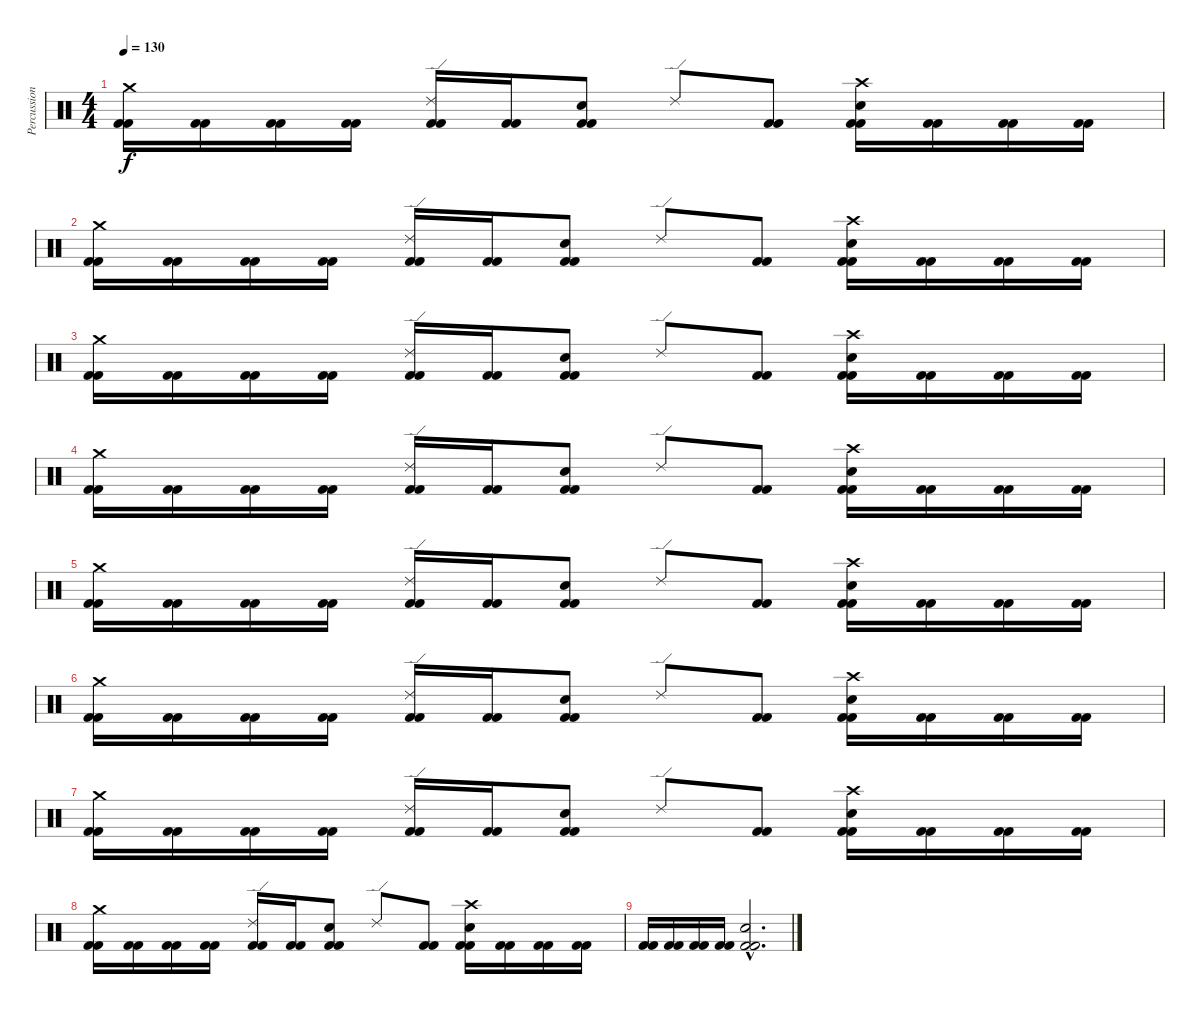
\track ("Percussion" "Percussion") {instrument percussion}
\staff {score}
\articulation defaults
\ts (4 4)
\tempo 130
\clef neutral
\ks c
("Kick (hit) 2" "Kick (hit) 2" "Crash medium (hit)").16{dy f} ("Kick (hit) 2" "Kick (hit) 2").16 ("Kick (hit) 2" "Kick (hit) 2").16 ("Kick (hit) 2" "Kick (hit) 2").16 ("Kick (hit) 2" "Kick (hit) 2" "Ride (edge) 2").16 ("Kick (hit) 2" "Kick (hit) 2").16 ("Kick (hit) 2" "Kick (hit) 2" "Electric Snare (hit)").8 "Ride (edge) 2".8 ("Kick (hit) 2" "Kick (hit) 2").8 ("Kick (hit) 2" "Kick (hit) 2" "Electric Snare (hit)" "Crash high (hit)").16 ("Kick (hit) 2" "Kick (hit) 2").16 ("Kick (hit) 2" "Kick (hit) 2").16 ("Kick (hit) 2" "Kick (hit) 2").16 |
("Kick (hit) 2" "Kick (hit) 2" "Crash medium (hit)").16 ("Kick (hit) 2" "Kick (hit) 2").16 ("Kick (hit) 2" "Kick (hit) 2").16 ("Kick (hit) 2" "Kick (hit) 2").16 ("Kick (hit) 2" "Kick (hit) 2" "Ride (edge) 2").16 ("Kick (hit) 2" "Kick (hit) 2").16 ("Kick (hit) 2" "Kick (hit) 2" "Electric Snare (hit)").8 "Ride (edge) 2".8 ("Kick (hit) 2" "Kick (hit) 2").8 ("Kick (hit) 2" "Kick (hit) 2" "Electric Snare (hit)" "Crash high (hit)").16 ("Kick (hit) 2" "Kick (hit) 2").16 ("Kick (hit) 2" "Kick (hit) 2").16 ("Kick (hit) 2" "Kick (hit) 2").16 |
("Kick (hit) 2" "Kick (hit) 2" "Crash medium (hit)").16 ("Kick (hit) 2" "Kick (hit) 2").16 ("Kick (hit) 2" "Kick (hit) 2").16 ("Kick (hit) 2" "Kick (hit) 2").16 ("Kick (hit) 2" "Kick (hit) 2" "Ride (edge) 2").16 ("Kick (hit) 2" "Kick (hit) 2").16 ("Kick (hit) 2" "Kick (hit) 2" "Electric Snare (hit)").8 "Ride (edge) 2".8 ("Kick (hit) 2" "Kick (hit) 2").8 ("Kick (hit) 2" "Kick (hit) 2" "Electric Snare (hit)" "Crash high (hit)").16 ("Kick (hit) 2" "Kick (hit) 2").16 ("Kick (hit) 2" "Kick (hit) 2").16 ("Kick (hit) 2" "Kick (hit) 2").16 |
("Kick (hit) 2" "Kick (hit) 2" "Crash medium (hit)").16 ("Kick (hit) 2" "Kick (hit) 2").16 ("Kick (hit) 2" "Kick (hit) 2").16 ("Kick (hit) 2" "Kick (hit) 2").16 ("Kick (hit) 2" "Kick (hit) 2" "Ride (edge) 2").16 ("Kick (hit) 2" "Kick (hit) 2").16 ("Kick (hit) 2" "Kick (hit) 2" "Electric Snare (hit)").8 "Ride (edge) 2".8 ("Kick (hit) 2" "Kick (hit) 2").8 ("Kick (hit) 2" "Kick (hit) 2" "Electric Snare (hit)" "Crash high (hit)").16 ("Kick (hit) 2" "Kick (hit) 2").16 ("Kick (hit) 2" "Kick (hit) 2").16 ("Kick (hit) 2" "Kick (hit) 2").16 |
("Kick (hit) 2" "Kick (hit) 2" "Crash medium (hit)").16 ("Kick (hit) 2" "Kick (hit) 2").16 ("Kick (hit) 2" "Kick (hit) 2").16 ("Kick (hit) 2" "Kick (hit) 2").16 ("Kick (hit) 2" "Kick (hit) 2" "Ride (edge) 2").16 ("Kick (hit) 2" "Kick (hit) 2").16 ("Kick (hit) 2" "Kick (hit) 2" "Electric Snare (hit)").8 "Ride (edge) 2".8 ("Kick (hit) 2" "Kick (hit) 2").8 ("Kick (hit) 2" "Kick (hit) 2" "Electric Snare (hit)" "Crash high (hit)").16 ("Kick (hit) 2" "Kick (hit) 2").16 ("Kick (hit) 2" "Kick (hit) 2").16 ("Kick (hit) 2" "Kick (hit) 2").16 |
("Kick (hit) 2" "Kick (hit) 2" "Crash medium (hit)").16 ("Kick (hit) 2" "Kick (hit) 2").16 ("Kick (hit) 2" "Kick (hit) 2").16 ("Kick (hit) 2" "Kick (hit) 2").16 ("Kick (hit) 2" "Kick (hit) 2" "Ride (edge) 2").16 ("Kick (hit) 2" "Kick (hit) 2").16 ("Kick (hit) 2" "Kick (hit) 2" "Electric Snare (hit)").8 "Ride (edge) 2".8 ("Kick (hit) 2" "Kick (hit) 2").8 ("Kick (hit) 2" "Kick (hit) 2" "Electric Snare (hit)" "Crash high (hit)").16 ("Kick (hit) 2" "Kick (hit) 2").16 ("Kick (hit) 2" "Kick (hit) 2").16 ("Kick (hit) 2" "Kick (hit) 2").16 |
("Kick (hit) 2" "Kick (hit) 2" "Crash medium (hit)").16 ("Kick (hit) 2" "Kick (hit) 2").16 ("Kick (hit) 2" "Kick (hit) 2").16 ("Kick (hit) 2" "Kick (hit) 2").16 ("Kick (hit) 2" "Kick (hit) 2" "Ride (edge) 2").16 ("Kick (hit) 2" "Kick (hit) 2").16 ("Kick (hit) 2" "Kick (hit) 2" "Electric Snare (hit)").8 "Ride (edge) 2".8 ("Kick (hit) 2" "Kick (hit) 2").8 ("Kick (hit) 2" "Kick (hit) 2" "Electric Snare (hit)" "Crash high (hit)").16 ("Kick (hit) 2" "Kick (hit) 2").16 ("Kick (hit) 2" "Kick (hit) 2").16 ("Kick (hit) 2" "Kick (hit) 2").16 |
("Kick (hit) 2" "Kick (hit) 2" "Crash medium (hit)").16 ("Kick (hit) 2" "Kick (hit) 2").16 ("Kick (hit) 2" "Kick (hit) 2").16 ("Kick (hit) 2" "Kick (hit) 2").16 ("Kick (hit) 2" "Kick (hit) 2" "Ride (edge) 2").16 ("Kick (hit) 2" "Kick (hit) 2").16 ("Kick (hit) 2" "Kick (hit) 2" "Electric Snare (hit)").8 "Ride (edge) 2".8 ("Kick (hit) 2" "Kick (hit) 2").8 ("Kick (hit) 2" "Kick (hit) 2" "Electric Snare (hit)" "Crash high (hit)").16 ("Kick (hit) 2" "Kick (hit) 2").16 ("Kick (hit) 2" "Kick (hit) 2").16 ("Kick (hit) 2" "Kick (hit) 2").16 |
("Kick (hit) 2" "Kick (hit) 2").16 ("Kick (hit) 2" "Kick (hit) 2").16 ("Kick (hit) 2" "Kick (hit) 2").16 ("Kick (hit) 2" "Kick (hit) 2").16 ("Kick (hit) 2"{hac} "Kick (hit) 2"{hac} "Electric Snare (hit)"{hac}).2{d}
